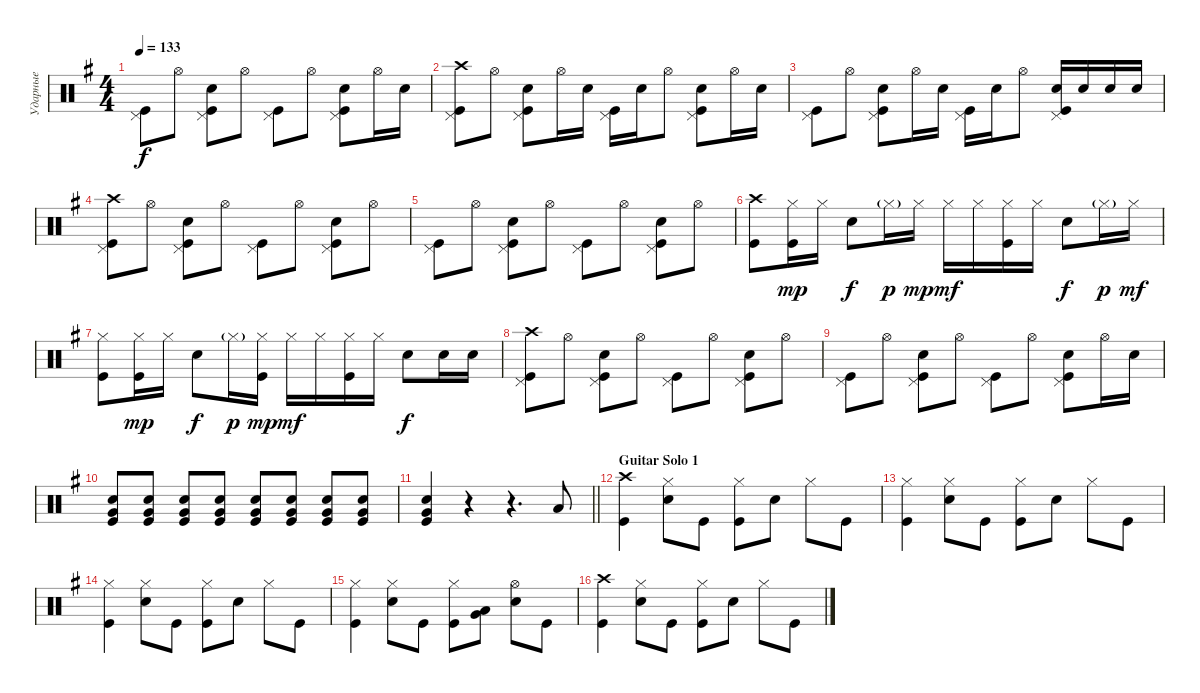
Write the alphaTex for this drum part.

\track ("Ударные" "Ударные") {instrument percussion}
\staff {score}
\articulation defaults
\ts (4 4)
\tempo 133
\clef neutral
\ks eminor
("Pedal Hi-Hat (hit)" "Kick (hit)").8{dy f} "Hi-Hat (open)".8 ("Pedal Hi-Hat (hit)" "Snare (hit) 2" "Kick (hit)").8 "Hi-Hat (open)".8 ("Pedal Hi-Hat (hit)" "Kick (hit)").8 "Hi-Hat (open)".8 ("Pedal Hi-Hat (hit)" "Snare (hit) 2" "Kick (hit)").8 "Hi-Hat (open)".16 "Snare (hit) 2".16 |
("Pedal Hi-Hat (hit)" "Kick (hit)" "Crash high (hit)").8 "Hi-Hat (open)".8 ("Pedal Hi-Hat (hit)" "Snare (hit) 2" "Kick (hit)").8 "Hi-Hat (open)".16 "Snare (hit) 2".16 ("Pedal Hi-Hat (hit)" "Kick (hit)").16 "Snare (hit) 2".16 "Hi-Hat (open)".8 ("Pedal Hi-Hat (hit)" "Snare (hit) 2" "Kick (hit)").8 "Hi-Hat (open)".16 "Snare (hit) 2".16 |
("Pedal Hi-Hat (hit)" "Kick (hit)").8 "Hi-Hat (open)".8 ("Pedal Hi-Hat (hit)" "Snare (hit) 2" "Kick (hit)").8 "Hi-Hat (open)".16 "Snare (hit) 2".16 ("Pedal Hi-Hat (hit)" "Kick (hit)").16 "Snare (hit) 2".16 "Hi-Hat (open)".8 ("Pedal Hi-Hat (hit)" "Snare (hit) 2" "Kick (hit)").16 "Snare (hit) 2".16 "Snare (hit) 2".16 "Snare (hit) 2".16 |
("Pedal Hi-Hat (hit)" "Kick (hit)" "Crash high (hit)").8 "Hi-Hat (open)".8 ("Pedal Hi-Hat (hit)" "Snare (hit) 2" "Kick (hit)").8 "Hi-Hat (open)".8 ("Pedal Hi-Hat (hit)" "Kick (hit)").8 "Hi-Hat (open)".8 ("Pedal Hi-Hat (hit)" "Snare (hit) 2" "Kick (hit)").8 "Hi-Hat (open)".8 |
("Pedal Hi-Hat (hit)" "Kick (hit)").8 "Hi-Hat (open)".8 ("Pedal Hi-Hat (hit)" "Snare (hit) 2" "Kick (hit)").8 "Hi-Hat (open)".8 ("Pedal Hi-Hat (hit)" "Kick (hit)").8 "Hi-Hat (open)".8 ("Pedal Hi-Hat (hit)" "Snare (hit) 2" "Kick (hit)").8 "Hi-Hat (open)".8 |
("Kick (hit)" "Crash high (hit)").8 ("Kick (hit)" "Hi-Hat (closed)").16{dy mp} "Hi-Hat (closed)".16 "Snare (hit) 2".8{dy f} "Hi-Hat (closed)"{g}.16{dy p} "Hi-Hat (closed)".16{dy mp} "Hi-Hat (closed)".16{dy mf} "Hi-Hat (closed)".16 ("Hi-Hat (closed)" "Kick (hit)").16 "Hi-Hat (closed)".16 "Snare (hit) 2".8{dy f} "Hi-Hat (closed)"{g}.16{dy p} "Hi-Hat (closed)".16{dy mf} |
("Kick (hit)" "Hi-Hat (closed)").8 ("Kick (hit)" "Hi-Hat (closed)").16{dy mp} "Hi-Hat (closed)".16 "Snare (hit) 2".8{dy f} "Hi-Hat (closed)"{g}.16{dy p} ("Hi-Hat (closed)" "Kick (hit)").16{dy mp} "Hi-Hat (closed)".16{dy mf} "Hi-Hat (closed)".16 ("Hi-Hat (closed)" "Kick (hit)").16 "Hi-Hat (closed)".16 "Snare (hit) 2".8{dy f} "Snare (hit) 2".16 "Snare (hit) 2".16 |
("Pedal Hi-Hat (hit)" "Kick (hit)" "Crash high (hit)").8 "Hi-Hat (open)".8 ("Pedal Hi-Hat (hit)" "Snare (hit) 2" "Kick (hit)").8 "Hi-Hat (open)".8 ("Pedal Hi-Hat (hit)" "Kick (hit)").8 "Hi-Hat (open)".8 ("Pedal Hi-Hat (hit)" "Snare (hit) 2" "Kick (hit)").8 "Hi-Hat (open)".8 |
("Pedal Hi-Hat (hit)" "Kick (hit)").8 "Hi-Hat (open)".8 ("Pedal Hi-Hat (hit)" "Snare (hit) 2" "Kick (hit)").8 "Hi-Hat (open)".8 ("Pedal Hi-Hat (hit)" "Kick (hit)").8 "Hi-Hat (open)".8 ("Pedal Hi-Hat (hit)" "Snare (hit) 2" "Kick (hit)").8 "Hi-Hat (open)".16 "Snare (hit) 2".16 |
("Kick (hit)" "Very Low Tom (hit)" "Snare (hit) 2").8{bd 60} ("Kick (hit)" "Very Low Tom (hit)" "Snare (hit) 2").8{bd 60} ("Kick (hit)" "Very Low Tom (hit)" "Snare (hit) 2").8{bd 60} ("Kick (hit)" "Snare (hit) 2" "Very Low Tom (hit)").8{bd 60} ("Kick (hit)" "Very Low Tom (hit)" "Snare (hit) 2").8{bd 60} ("Kick (hit)" "Very Low Tom (hit)" "Snare (hit) 2").8{bd 60} ("Kick (hit)" "Very Low Tom (hit)" "Snare (hit) 2").8{bd 60} ("Kick (hit)" "Very Low Tom (hit)" "Snare (hit) 2").8{bd 60} |
\barLineRight lightlight
("Kick (hit)" "Snare (hit) 2" "Very Low Tom (hit)").4{bd 60} r.4 r.4{d} "Low Tom (hit)".8 |
\section ("" "Guitar Solo 1")
("Kick (hit)" "Crash high (hit)").4 ("Snare (hit) 2" "Hi-Hat (closed)").8 "Kick (hit)".8 ("Kick (hit)" "Hi-Hat (closed)").8 "Snare (hit) 2".8 "Hi-Hat (closed)".8 "Kick (hit)".8 |
("Kick (hit)" "Hi-Hat (closed)").4 ("Snare (hit) 2" "Hi-Hat (closed)").8 "Kick (hit)".8 ("Kick (hit)" "Hi-Hat (closed)").8 "Snare (hit) 2".8 "Hi-Hat (closed)".8 "Kick (hit)".8 |
("Kick (hit)" "Hi-Hat (closed)").4 ("Snare (hit) 2" "Hi-Hat (closed)").8 "Kick (hit)".8 ("Kick (hit)" "Hi-Hat (closed)").8 "Snare (hit) 2".8 "Hi-Hat (closed)".8 "Kick (hit)".8 |
("Kick (hit)" "Hi-Hat (closed)").4 ("Snare (hit) 2" "Hi-Hat (closed)").8 "Kick (hit)".8 ("Kick (hit)" "Hi-Hat (closed)").8 ("Very Low Tom (hit)" "Low Tom (hit)").8{bd 240} ("Snare (hit) 2" "Hi-Hat (open)").8 "Kick (hit)".8 |
("Kick (hit)" "Crash high (hit)").4 ("Snare (hit) 2" "Hi-Hat (closed)").8 "Kick (hit)".8 ("Kick (hit)" "Hi-Hat (closed)").8 "Snare (hit) 2".8 "Hi-Hat (closed)".8 "Kick (hit)".8
